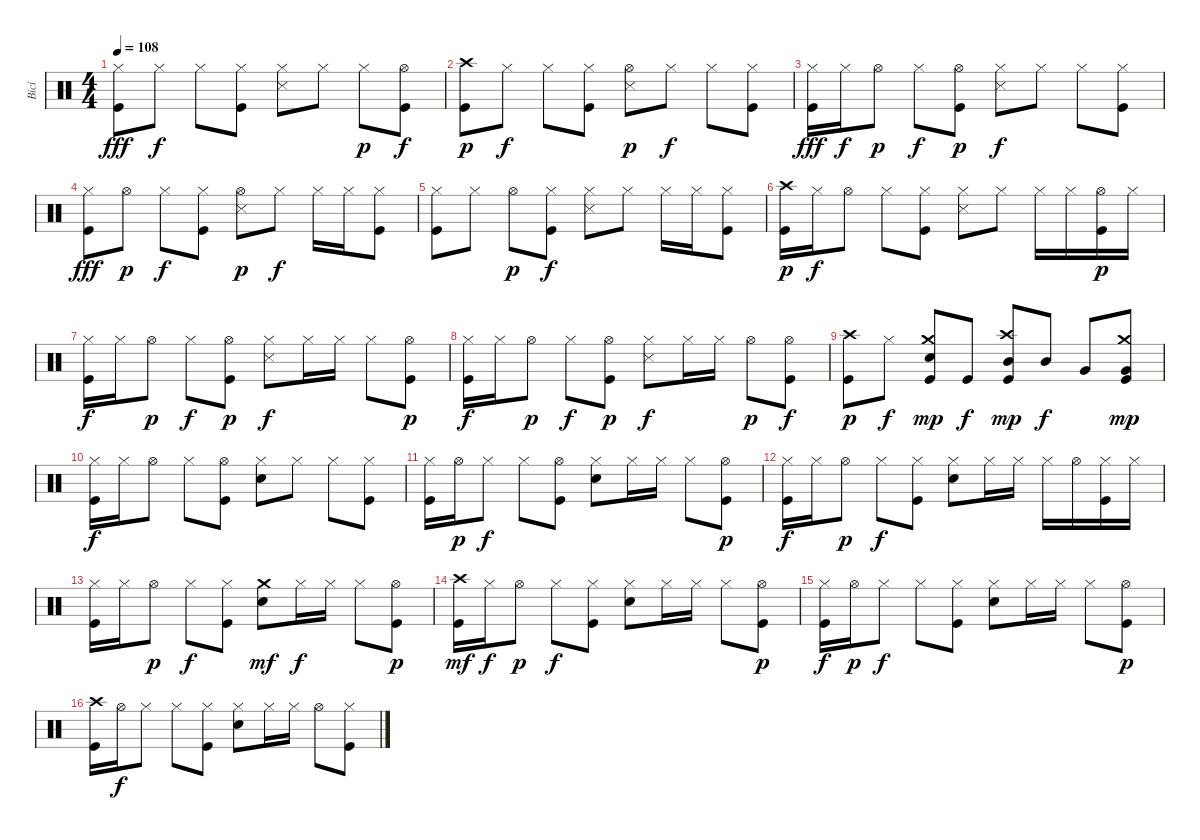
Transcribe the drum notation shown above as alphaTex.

\track ("Bicí" "Bicí") {instrument percussion}
\staff {score}
\articulation defaults
\ts (4 4)
\tempo 108
\clef neutral
\ks c
("Hi-Hat (closed)" "Kick (hit)").8{dy fff} "Hi-Hat (closed)".8{dy f} "Hi-Hat (closed)".8 ("Hi-Hat (closed)" "Kick (hit)").8 ("Hi-Hat (closed)" "Snare (side stick) 3").8 "Hi-Hat (closed)".8 "Hi-Hat (closed)".8{dy p} ("Hi-Hat (open)" "Kick (hit)").8{dy f} |
("Crash high (hit)" "Kick (hit)").8{dy p} "Hi-Hat (closed)".8{dy f} "Hi-Hat (closed)".8 ("Hi-Hat (closed)" "Kick (hit)").8 ("Hi-Hat (open)" "Snare (side stick) 3").8{dy p} "Hi-Hat (closed)".8{dy f} "Hi-Hat (closed)".8 ("Hi-Hat (closed)" "Kick (hit)").8 |
("Hi-Hat (closed)" "Kick (hit)").16{dy fff} "Hi-Hat (closed)".16{dy f} "Hi-Hat (open)".8{dy p} "Hi-Hat (closed)".8{dy f} ("Hi-Hat (open)" "Kick (hit)").8{dy p} ("Hi-Hat (closed)" "Snare (side stick) 3").8{dy f} "Hi-Hat (closed)".8 "Hi-Hat (closed)".8 ("Hi-Hat (closed)" "Kick (hit)").8 |
("Hi-Hat (closed)" "Kick (hit)").8{dy fff} "Hi-Hat (open)".8{dy p} "Hi-Hat (closed)".8{dy f} ("Hi-Hat (closed)" "Kick (hit)").8 ("Hi-Hat (open)" "Snare (side stick) 3").8{dy p} "Hi-Hat (closed)".8{dy f} "Hi-Hat (closed)".16 "Hi-Hat (closed)".16 ("Hi-Hat (closed)" "Kick (hit)").8 |
("Hi-Hat (closed)" "Kick (hit)").8 "Hi-Hat (closed)".8 "Hi-Hat (open)".8{dy p} ("Hi-Hat (closed)" "Kick (hit)").8{dy f} ("Hi-Hat (closed)" "Snare (side stick) 3").8 "Hi-Hat (closed)".8 "Hi-Hat (closed)".16 "Hi-Hat (closed)".16 ("Hi-Hat (closed)" "Kick (hit)").8 |
("Crash high (hit)" "Kick (hit)").16{dy p} "Hi-Hat (closed)".16{dy f} "Hi-Hat (open)".8 "Hi-Hat (closed)".8 ("Hi-Hat (closed)" "Kick (hit)").8 ("Hi-Hat (closed)" "Snare (side stick) 3").8 "Hi-Hat (closed)".8 "Hi-Hat (closed)".16 "Hi-Hat (closed)".16 ("Hi-Hat (open)" "Kick (hit)").16{dy p} "Hi-Hat (closed)".16 |
("Hi-Hat (closed)" "Kick (hit)").16{dy f} "Hi-Hat (closed)".16 "Hi-Hat (open)".8{dy p} "Hi-Hat (closed)".8{dy f} ("Hi-Hat (open)" "Kick (hit)").8{dy p} ("Hi-Hat (closed)" "Snare (side stick) 3").8{dy f} "Hi-Hat (closed)".16 "Hi-Hat (closed)".16 "Hi-Hat (closed)".8 ("Hi-Hat (open)" "Kick (hit)").8{dy p} |
("Hi-Hat (closed)" "Kick (hit)").16{dy f} "Hi-Hat (closed)".16 "Hi-Hat (open)".8{dy p} "Hi-Hat (closed)".8{dy f} ("Hi-Hat (open)" "Kick (hit)").8{dy p} ("Hi-Hat (closed)" "Snare (side stick) 3").8{dy f} "Hi-Hat (closed)".16 "Hi-Hat (closed)".16 "Hi-Hat (open)".8{dy p} ("Hi-Hat (open)" "Kick (hit)").8{dy f} |
("Crash high (hit)" "Kick (hit)").8{dy p} "Hi-Hat (closed)".8{dy f} ("Crash medium (hit)" "Snare (hit) 2" "Kick (hit)").8{dy mp} "Kick (hit)".8{dy f} ("Crash high (hit)" "Mid Tom (hit)" "Kick (hit)").8{dy mp} "Mid Tom (hit)".8{dy f} "Very Low Tom (hit)".8 ("Crash medium (hit)" "Very Low Tom (hit)" "Kick (hit)").8{dy mp} |
("Hi-Hat (closed)" "Kick (hit)").16{dy f} "Hi-Hat (closed)".16 "Hi-Hat (open)".8 "Hi-Hat (closed)".8 ("Hi-Hat (open)" "Kick (hit)").8 ("Hi-Hat (closed)" "Snare (hit) 2").8 "Hi-Hat (closed)".8 "Hi-Hat (closed)".8 ("Hi-Hat (closed)" "Kick (hit)").8 |
("Hi-Hat (closed)" "Kick (hit)").16 "Hi-Hat (open)".16{dy p} "Hi-Hat (closed)".8{dy f} "Hi-Hat (closed)".8 ("Hi-Hat (open)" "Kick (hit)").8 ("Hi-Hat (closed)" "Snare (hit) 2").8 "Hi-Hat (closed)".16 "Hi-Hat (closed)".16 "Hi-Hat (closed)".8 ("Hi-Hat (open)" "Kick (hit)").8{dy p} |
("Hi-Hat (closed)" "Kick (hit)").16{dy f} "Hi-Hat (closed)".16 "Hi-Hat (open)".8{dy p} "Hi-Hat (closed)".8{dy f} ("Hi-Hat (closed)" "Kick (hit)").8 ("Hi-Hat (closed)" "Snare (hit) 2").8 "Hi-Hat (closed)".16 "Hi-Hat (closed)".16 "Hi-Hat (closed)".16 "Hi-Hat (open)".16 ("Hi-Hat (closed)" "Kick (hit)").16 "Hi-Hat (closed)".16 |
("Hi-Hat (closed)" "Kick (hit)").16 "Hi-Hat (closed)".16 "Hi-Hat (open)".8{dy p} "Hi-Hat (closed)".8{dy f} ("Hi-Hat (closed)" "Kick (hit)").8 ("Crash medium (hit)" "Snare (hit) 2").8{dy mf} "Hi-Hat (closed)".16{dy f} "Hi-Hat (closed)".16 "Hi-Hat (closed)".8 ("Hi-Hat (open)" "Kick (hit)").8{dy p} |
("Crash high (hit)" "Kick (hit)").16{dy mf} "Hi-Hat (closed)".16{dy f} "Hi-Hat (open)".8{dy p} "Hi-Hat (closed)".8{dy f} ("Hi-Hat (closed)" "Kick (hit)").8 ("Hi-Hat (closed)" "Snare (hit) 2").8 "Hi-Hat (closed)".16 "Hi-Hat (closed)".16 "Hi-Hat (closed)".8 ("Hi-Hat (open)" "Kick (hit)").8{dy p} |
("Hi-Hat (closed)" "Kick (hit)").16{dy f} "Hi-Hat (open)".16{dy p} "Hi-Hat (closed)".8{dy f} "Hi-Hat (closed)".8 ("Hi-Hat (closed)" "Kick (hit)").8 ("Hi-Hat (closed)" "Snare (hit) 2").8 "Hi-Hat (closed)".16 "Hi-Hat (closed)".16 "Hi-Hat (closed)".8 ("Hi-Hat (open)" "Kick (hit)").8{dy p} |
("Crash high (hit)" "Kick (hit)").16 "Hi-Hat (open)".16{dy f} "Hi-Hat (closed)".8 "Hi-Hat (closed)".8 ("Hi-Hat (closed)" "Kick (hit)").8 ("Hi-Hat (closed)" "Snare (hit) 2").8 "Hi-Hat (closed)".16 "Hi-Hat (closed)".16 "Hi-Hat (open)".8 ("Hi-Hat (closed)" "Kick (hit)").8
